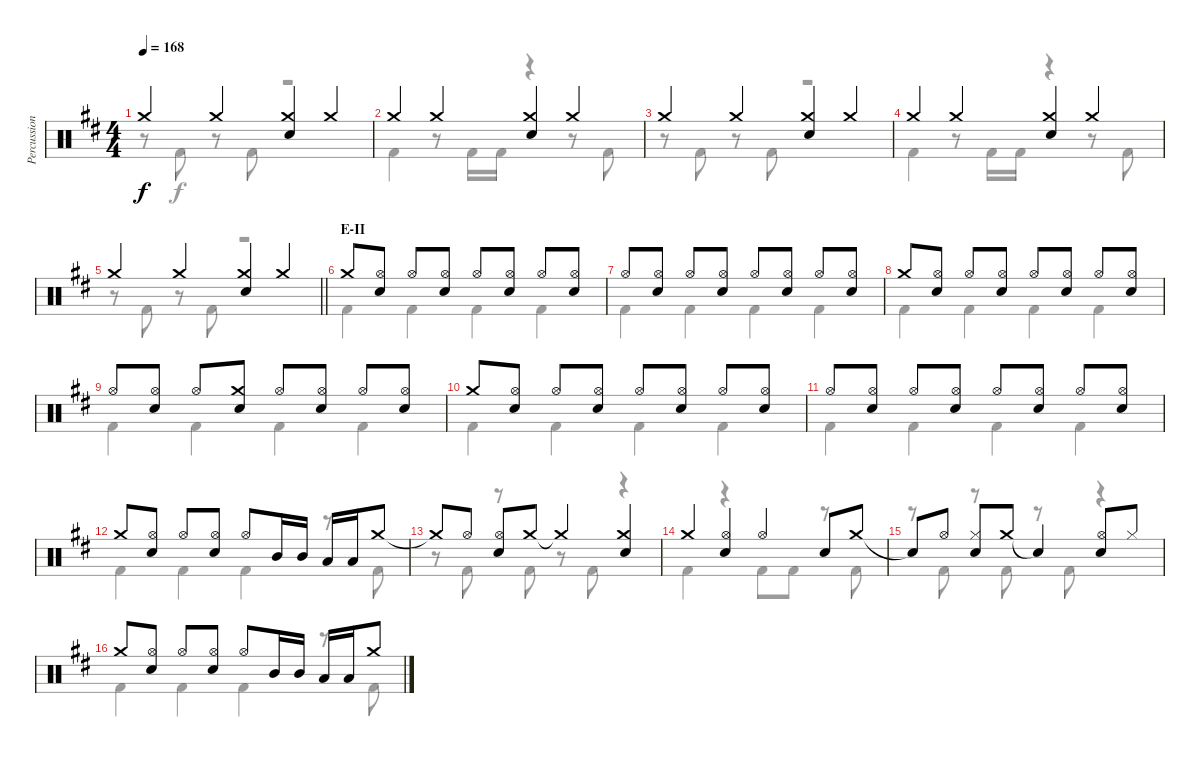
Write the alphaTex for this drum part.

\track ("Percussion" "Percussion") {instrument percussion}
\staff {score}
\articulation defaults
\voice
\ts (4 4)
\tempo 168
\clef neutral
\ks d "Crash medium (hit)".4{dy f} "Crash medium (hit)".4
("Crash medium (hit)" "Snare (hit) 2").4 "Crash medium (hit)".4 |
"Crash medium (hit)".4 "Crash medium (hit)".4 ("Crash medium (hit)" "Snare (hit) 2").4 "Crash medium (hit)".4 |
"Crash medium (hit)".4 "Crash medium (hit)".4 ("Crash medium (hit)" "Snare (hit) 2").4 "Crash medium (hit)".4 |
"Crash medium (hit)".4 "Crash medium (hit)".4 ("Crash medium (hit)" "Snare (hit) 2").4 "Crash medium (hit)".4 |
\barLineRight lightlight "Crash medium (hit)".4 "Crash medium (hit)".4
("Crash medium (hit)" "Snare (hit) 2").4 "Crash medium (hit)".4 |
\section ("" "E-II")
"Crash medium (hit)".8 ("Hi-Hat (open)" "Snare (hit) 2").8 "Hi-Hat (open)".8 ("Hi-Hat (open)" "Snare (hit) 2").8 "Hi-Hat (open)".8 ("Hi-Hat (open)" "Snare (hit) 2").8 "Hi-Hat (open)".8 ("Hi-Hat (open)" "Snare (hit) 2").8 |
"Hi-Hat (open)".8 ("Hi-Hat (open)" "Snare (hit) 2").8 "Hi-Hat (open)".8 ("Hi-Hat (open)" "Snare (hit) 2").8 "Hi-Hat (open)".8 ("Hi-Hat (open)" "Snare (hit) 2").8 "Hi-Hat (open)".8 ("Hi-Hat (open)" "Snare (hit) 2").8 |
"Crash medium (hit)".8 ("Hi-Hat (open)" "Snare (hit) 2").8 "Hi-Hat (open)".8 ("Hi-Hat (open)" "Snare (hit) 2").8 "Hi-Hat (open)".8 ("Hi-Hat (open)" "Snare (hit) 2").8 "Hi-Hat (open)".8 ("Hi-Hat (open)" "Snare (hit) 2").8 |
"Hi-Hat (open)".8 ("Hi-Hat (open)" "Snare (hit) 2").8 "Hi-Hat (open)".8 ("Crash medium (hit)" "Snare (hit) 2").8 "Hi-Hat (open)".8 ("Hi-Hat (open)" "Snare (hit) 2").8 "Hi-Hat (open)".8 ("Hi-Hat (open)" "Snare (hit) 2").8 |
"Crash medium (hit)".8 ("Hi-Hat (open)" "Snare (hit) 2").8 "Hi-Hat (open)".8 ("Hi-Hat (open)" "Snare (hit) 2").8 "Hi-Hat (open)".8 ("Hi-Hat (open)" "Snare (hit) 2").8 "Hi-Hat (open)".8 ("Hi-Hat (open)" "Snare (hit) 2").8 |
"Hi-Hat (open)".8 ("Hi-Hat (open)" "Snare (hit) 2").8 "Hi-Hat (open)".8 ("Hi-Hat (open)" "Snare (hit) 2").8 "Hi-Hat (open)".8 ("Hi-Hat (open)" "Snare (hit) 2").8 "Hi-Hat (open)".8 ("Hi-Hat (open)" "Snare (hit) 2").8 |
"Crash medium (hit)".8 ("Hi-Hat (open)" "Snare (hit) 2").8 "Hi-Hat (open)".8 ("Hi-Hat (open)" "Snare (hit) 2").8 "Hi-Hat (open)".8 "Mid Tom (hit)".16 "Mid Tom (hit)".16 "Low Tom (hit)".16 "Low Tom (hit)".16 "Crash medium (hit)".8 |
"Crash medium (hit)"{t}.8 "Hi-Hat (open)".8 ("Hi-Hat (open)" "Snare (hit) 2").8 "Crash medium (hit)".8 "Crash medium (hit)"{t}.4 ("Crash medium (hit)" "Snare (hit) 2").4 |
"Crash medium (hit)".4 ("Hi-Hat (open)" "Snare (hit) 2").4 "Hi-Hat (open)".4 "Snare (hit) 2".8 "Crash medium (hit)".8 |
"Snare (hit)"{t}.8 "Hi-Hat (open)".8 ("Hi-Hat (closed)" "Snare (hit) 2").8 "Crash medium (hit)".8 "Snare (hit)"{t}.4 ("Hi-Hat (open)" "Snare (hit) 2").8 "Hi-Hat (closed)".8 |
"Crash medium (hit)".8 ("Hi-Hat (open)" "Snare (hit) 2").8 "Hi-Hat (open)".8 ("Hi-Hat (open)" "Snare (hit) 2").8 "Hi-Hat (open)".8 "Mid Tom (hit)".16 "Mid Tom (hit)".16 "Low Tom (hit)".16 "Low Tom (hit)".16 "Crash medium (hit)".8
\voice
\clef neutral
\ottava regular
\simile none
\ks d
r.8{dy f} "Kick (hit) 2".8 r.8 "Kick (hit) 2".8 r.2 |
"Kick (hit) 2".4 r.8 "Kick (hit) 2".16 "Kick (hit) 2".16 r.4 r.8 "Kick (hit) 2".8 |
r.8 "Kick (hit) 2".8 r.8 "Kick (hit) 2".8 r.2 |
"Kick (hit) 2".4 r.8 "Kick (hit) 2".16 "Kick (hit) 2".16 r.4 r.8 "Kick (hit) 2".8 |
\barLineRight lightlight
r.8 "Kick (hit) 2".8 r.8 "Kick (hit) 2".8 r.2 |
"Kick (hit) 2".4 "Kick (hit) 2".4 "Kick (hit) 2".4 "Kick (hit) 2".4 |
"Kick (hit) 2".4 "Kick (hit) 2".4 "Kick (hit) 2".4 "Kick (hit) 2".4 |
"Kick (hit) 2".4 "Kick (hit) 2".4 "Kick (hit) 2".4 "Kick (hit) 2".4 |
"Kick (hit) 2".4 "Kick (hit) 2".4 "Kick (hit) 2".4 "Kick (hit) 2".4 |
"Kick (hit) 2".4 "Kick (hit) 2".4 "Kick (hit) 2".4 "Kick (hit) 2".4 |
"Kick (hit) 2".4 "Kick (hit) 2".4 "Kick (hit) 2".4 "Kick (hit) 2".4 |
"Kick (hit) 2".4 "Kick (hit) 2".4 "Kick (hit) 2".4 r.8 "Kick (hit) 2".8 |
r.8 "Kick (hit) 2".8 r.8 "Kick (hit) 2".8 r.8 "Kick (hit) 2".8 r.4 |
"Kick (hit) 2".4 r.4 "Kick (hit) 2".8 "Kick (hit) 2".8 r.8 "Kick (hit) 2".8 |
r.8 "Kick (hit) 2".8 r.8 "Kick (hit) 2".8 r.8 "Kick (hit) 2".8 r.4 |
"Kick (hit) 2".4 "Kick (hit) 2".4 "Kick (hit) 2".4 r.8 "Kick (hit) 2".8
